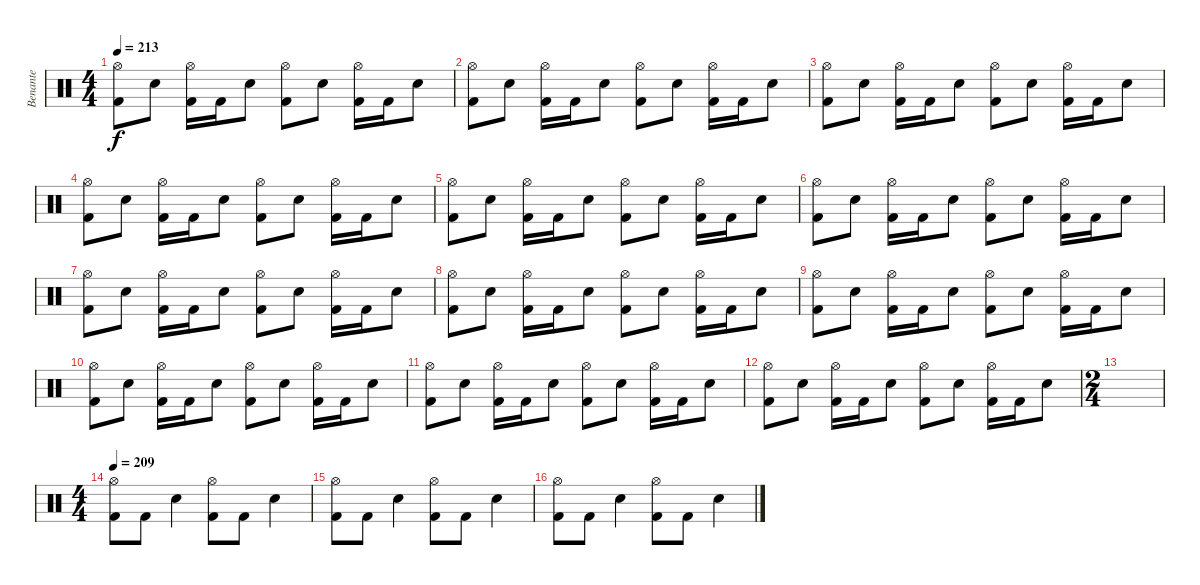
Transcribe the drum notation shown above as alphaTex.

\track ("Benante" "Benante") {solo instrument percussion}
\staff {score}
\articulation defaults
\ts (4 4)
\tempo 213
\clef neutral
\ks c
("Kick (hit) 2" "Hi-Hat (open)").8{dy f} "Electric Snare (hit)".8 ("Kick (hit) 2" "Hi-Hat (open)").16 "Kick (hit) 2".16 "Electric Snare (hit)".8 ("Kick (hit) 2" "Hi-Hat (open)").8 "Electric Snare (hit)".8 ("Kick (hit) 2" "Hi-Hat (open)").16 "Kick (hit) 2".16 "Electric Snare (hit)".8 |
("Kick (hit) 2" "Hi-Hat (open)").8 "Electric Snare (hit)".8 ("Kick (hit) 2" "Hi-Hat (open)").16 "Kick (hit) 2".16 "Electric Snare (hit)".8 ("Kick (hit) 2" "Hi-Hat (open)").8 "Electric Snare (hit)".8 ("Kick (hit) 2" "Hi-Hat (open)").16 "Kick (hit) 2".16 "Electric Snare (hit)".8 |
("Kick (hit) 2" "Hi-Hat (open)").8 "Electric Snare (hit)".8 ("Kick (hit) 2" "Hi-Hat (open)").16 "Kick (hit) 2".16 "Electric Snare (hit)".8 ("Kick (hit) 2" "Hi-Hat (open)").8 "Electric Snare (hit)".8 ("Kick (hit) 2" "Hi-Hat (open)").16 "Kick (hit) 2".16 "Electric Snare (hit)".8 |
("Kick (hit) 2" "Hi-Hat (open)").8 "Electric Snare (hit)".8 ("Kick (hit) 2" "Hi-Hat (open)").16 "Kick (hit) 2".16 "Electric Snare (hit)".8 ("Kick (hit) 2" "Hi-Hat (open)").8 "Electric Snare (hit)".8 ("Kick (hit) 2" "Hi-Hat (open)").16 "Kick (hit) 2".16 "Electric Snare (hit)".8 |
("Kick (hit) 2" "Hi-Hat (open)").8 "Electric Snare (hit)".8 ("Kick (hit) 2" "Hi-Hat (open)").16 "Kick (hit) 2".16 "Electric Snare (hit)".8 ("Kick (hit) 2" "Hi-Hat (open)").8 "Electric Snare (hit)".8 ("Kick (hit) 2" "Hi-Hat (open)").16 "Kick (hit) 2".16 "Electric Snare (hit)".8 |
("Kick (hit) 2" "Hi-Hat (open)").8 "Electric Snare (hit)".8 ("Kick (hit) 2" "Hi-Hat (open)").16 "Kick (hit) 2".16 "Electric Snare (hit)".8 ("Kick (hit) 2" "Hi-Hat (open)").8 "Electric Snare (hit)".8 ("Kick (hit) 2" "Hi-Hat (open)").16 "Kick (hit) 2".16 "Electric Snare (hit)".8 |
("Kick (hit) 2" "Hi-Hat (open)").8 "Electric Snare (hit)".8 ("Kick (hit) 2" "Hi-Hat (open)").16 "Kick (hit) 2".16 "Electric Snare (hit)".8 ("Kick (hit) 2" "Hi-Hat (open)").8 "Electric Snare (hit)".8 ("Kick (hit) 2" "Hi-Hat (open)").16 "Kick (hit) 2".16 "Electric Snare (hit)".8 |
("Kick (hit) 2" "Hi-Hat (open)").8 "Electric Snare (hit)".8 ("Kick (hit) 2" "Hi-Hat (open)").16 "Kick (hit) 2".16 "Electric Snare (hit)".8 ("Kick (hit) 2" "Hi-Hat (open)").8 "Electric Snare (hit)".8 ("Kick (hit) 2" "Hi-Hat (open)").16 "Kick (hit) 2".16 "Electric Snare (hit)".8 |
("Kick (hit) 2" "Hi-Hat (open)").8 "Electric Snare (hit)".8 ("Kick (hit) 2" "Hi-Hat (open)").16 "Kick (hit) 2".16 "Electric Snare (hit)".8 ("Kick (hit) 2" "Hi-Hat (open)").8 "Electric Snare (hit)".8 ("Kick (hit) 2" "Hi-Hat (open)").16 "Kick (hit) 2".16 "Electric Snare (hit)".8 |
("Kick (hit) 2" "Hi-Hat (open)").8 "Electric Snare (hit)".8 ("Kick (hit) 2" "Hi-Hat (open)").16 "Kick (hit) 2".16 "Electric Snare (hit)".8 ("Kick (hit) 2" "Hi-Hat (open)").8 "Electric Snare (hit)".8 ("Kick (hit) 2" "Hi-Hat (open)").16 "Kick (hit) 2".16 "Electric Snare (hit)".8 |
("Kick (hit) 2" "Hi-Hat (open)").8 "Electric Snare (hit)".8 ("Kick (hit) 2" "Hi-Hat (open)").16 "Kick (hit) 2".16 "Electric Snare (hit)".8 ("Kick (hit) 2" "Hi-Hat (open)").8 "Electric Snare (hit)".8 ("Kick (hit) 2" "Hi-Hat (open)").16 "Kick (hit) 2".16 "Electric Snare (hit)".8 |
("Kick (hit) 2" "Hi-Hat (open)").8 "Electric Snare (hit)".8 ("Kick (hit) 2" "Hi-Hat (open)").16 "Kick (hit) 2".16 "Electric Snare (hit)".8 ("Kick (hit) 2" "Hi-Hat (open)").8 "Electric Snare (hit)".8 ("Kick (hit) 2" "Hi-Hat (open)").16 "Kick (hit) 2".16 "Electric Snare (hit)".8 |
\ts (2 4)
|
\ts (4 4)
\tempo 209
("Kick (hit) 2" "Hi-Hat (open)").8 "Kick (hit) 2".8 "Electric Snare (hit)".4 ("Kick (hit) 2" "Hi-Hat (open)").8 "Kick (hit) 2".8 "Electric Snare (hit)".4 |
("Kick (hit) 2" "Hi-Hat (open)").8 "Kick (hit) 2".8 "Electric Snare (hit)".4 ("Kick (hit) 2" "Hi-Hat (open)").8 "Kick (hit) 2".8 "Electric Snare (hit)".4 |
("Kick (hit) 2" "Hi-Hat (open)").8 "Kick (hit) 2".8 "Electric Snare (hit)".4 ("Kick (hit) 2" "Hi-Hat (open)").8 "Kick (hit) 2".8 "Electric Snare (hit)".4
